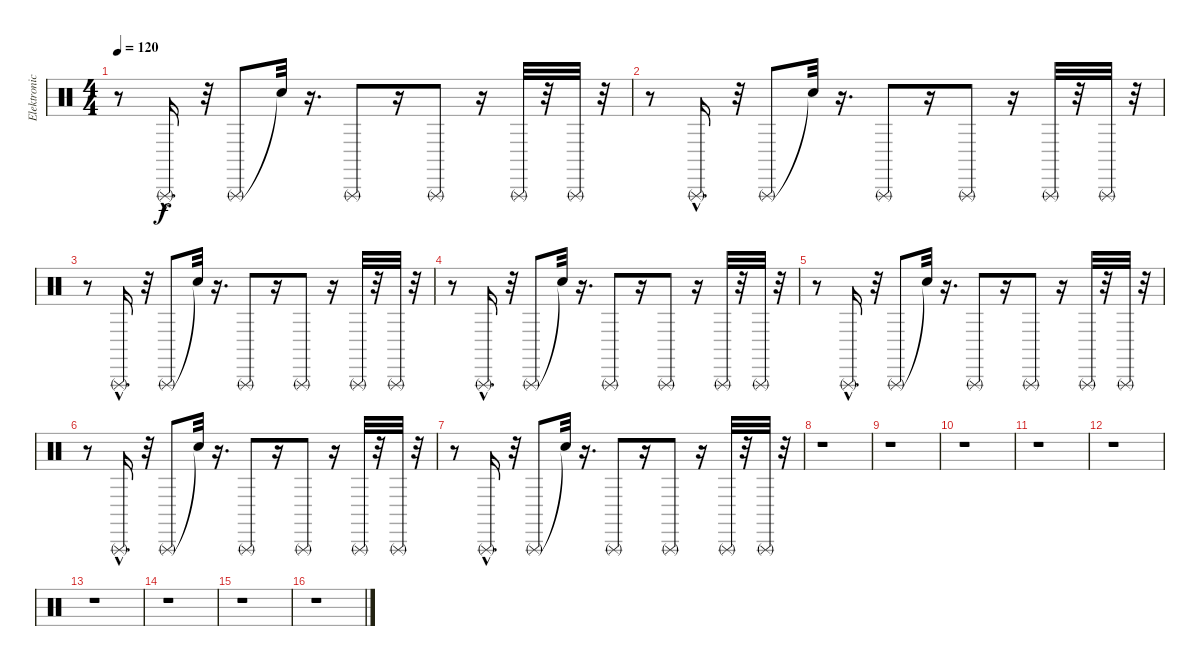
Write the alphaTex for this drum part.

\track ("Elektronické bicí 1" "Elektronic") {instrument percussion}
\staff {score}
\articulation defaults
\ts (4 4)
\tempo 120
\clef neutral
\ks c
r.8{dy f} "Triangle (rnute)"{hac}.16{d} r.32 "Triangle (rnute)".8 "Snare (hit)"{t}.32 r.16{d} "Triangle (rnute)".8 r.16 "Triangle (rnute)".8 r.16 "Triangle (rnute)".32 r.32 "Triangle (rnute)".32 r.32 |
r.8 "Triangle (rnute)"{hac}.16{d} r.32 "Triangle (rnute)".8 "Snare (hit)"{t}.32 r.16{d} "Triangle (rnute)".8 r.16 "Triangle (rnute)".8 r.16 "Triangle (rnute)".32 r.32 "Triangle (rnute)".32 r.32 |
r.8 "Triangle (rnute)"{hac}.16{d} r.32 "Triangle (rnute)".8 "Snare (hit)"{t}.32 r.16{d} "Triangle (rnute)".8 r.16 "Triangle (rnute)".8 r.16 "Triangle (rnute)".32 r.32 "Triangle (rnute)".32 r.32 |
r.8 "Triangle (rnute)"{hac}.16{d} r.32 "Triangle (rnute)".8 "Snare (hit)"{t}.32 r.16{d} "Triangle (rnute)".8 r.16 "Triangle (rnute)".8 r.16 "Triangle (rnute)".32 r.32 "Triangle (rnute)".32 r.32 |
r.8 "Triangle (rnute)"{hac}.16{d} r.32 "Triangle (rnute)".8 "Snare (hit)"{t}.32 r.16{d} "Triangle (rnute)".8 r.16 "Triangle (rnute)".8 r.16 "Triangle (rnute)".32 r.32 "Triangle (rnute)".32 r.32 |
r.8 "Triangle (rnute)"{hac}.16{d} r.32 "Triangle (rnute)".8 "Snare (hit)"{t}.32 r.16{d} "Triangle (rnute)".8 r.16 "Triangle (rnute)".8 r.16 "Triangle (rnute)".32 r.32 "Triangle (rnute)".32 r.32 |
r.8 "Triangle (rnute)"{hac}.16{d} r.32 "Triangle (rnute)".8 "Snare (hit)"{t}.32 r.16{d} "Triangle (rnute)".8 r.16 "Triangle (rnute)".8 r.16 "Triangle (rnute)".32 r.32 "Triangle (rnute)".32 r.32 |
r.1 |
r.1 |
r.1 |
r.1 |
r.1 |
r.1 |
r.1 |
r.1 |
r.1
